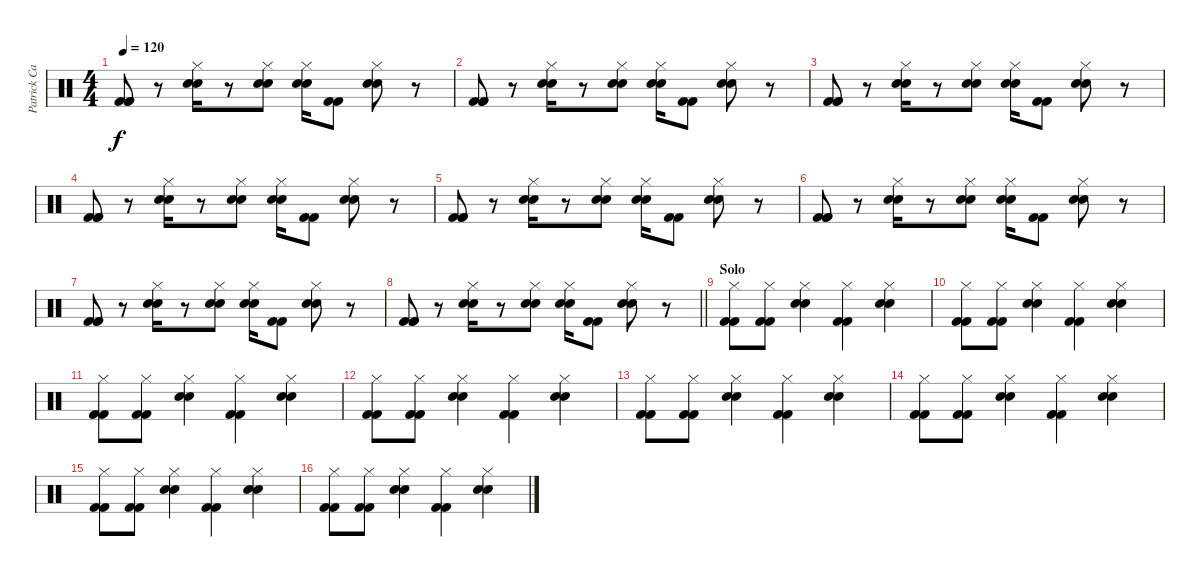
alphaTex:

\track ("Patrick Carney (Drums)" "Patrick Ca") {instrument percussion}
\staff {score}
\articulation defaults
\ts (4 4)
\tempo 120
\clef neutral
\ks c
("Kick (hit) 2" "Kick (hit) 2" "Kick (hit) 2").8{dy f} r.8 ("Electric Snare (hit)" "Snare (hit) 2" "Hi-Hat (closed)").16 r.8 ("Electric Snare (hit)" "Snare (hit) 2" "Hi-Hat (closed)").8 ("Electric Snare (hit)" "Snare (hit) 2" "Hi-Hat (closed)").16 ("Kick (hit) 2" "Kick (hit) 2").8 ("Electric Snare (hit)" "Snare (hit) 2" "Hi-Hat (closed)").8 r.8 |
("Kick (hit) 2" "Kick (hit) 2" "Kick (hit) 2").8 r.8 ("Electric Snare (hit)" "Snare (hit) 2" "Hi-Hat (closed)").16 r.8 ("Electric Snare (hit)" "Snare (hit) 2" "Hi-Hat (closed)").8 ("Electric Snare (hit)" "Snare (hit) 2" "Hi-Hat (closed)").16 ("Kick (hit) 2" "Kick (hit) 2").8 ("Electric Snare (hit)" "Snare (hit) 2" "Hi-Hat (closed)").8 r.8 |
("Kick (hit) 2" "Kick (hit) 2" "Kick (hit) 2").8 r.8 ("Electric Snare (hit)" "Snare (hit) 2" "Hi-Hat (closed)").16 r.8 ("Electric Snare (hit)" "Snare (hit) 2" "Hi-Hat (closed)").8 ("Electric Snare (hit)" "Snare (hit) 2" "Hi-Hat (closed)").16 ("Kick (hit) 2" "Kick (hit) 2").8 ("Electric Snare (hit)" "Snare (hit) 2" "Hi-Hat (closed)").8 r.8 |
("Kick (hit) 2" "Kick (hit) 2" "Kick (hit) 2").8 r.8 ("Electric Snare (hit)" "Snare (hit) 2" "Hi-Hat (closed)").16 r.8 ("Electric Snare (hit)" "Snare (hit) 2" "Hi-Hat (closed)").8 ("Electric Snare (hit)" "Snare (hit) 2" "Hi-Hat (closed)").16 ("Kick (hit) 2" "Kick (hit) 2").8 ("Electric Snare (hit)" "Snare (hit) 2" "Hi-Hat (closed)").8 r.8 |
("Kick (hit) 2" "Kick (hit) 2" "Kick (hit) 2").8 r.8 ("Electric Snare (hit)" "Snare (hit) 2" "Hi-Hat (closed)").16 r.8 ("Electric Snare (hit)" "Snare (hit) 2" "Hi-Hat (closed)").8 ("Electric Snare (hit)" "Snare (hit) 2" "Hi-Hat (closed)").16 ("Kick (hit) 2" "Kick (hit) 2").8 ("Electric Snare (hit)" "Snare (hit) 2" "Hi-Hat (closed)").8 r.8 |
("Kick (hit) 2" "Kick (hit) 2" "Kick (hit) 2").8 r.8 ("Electric Snare (hit)" "Snare (hit) 2" "Hi-Hat (closed)").16 r.8 ("Electric Snare (hit)" "Snare (hit) 2" "Hi-Hat (closed)").8 ("Electric Snare (hit)" "Snare (hit) 2" "Hi-Hat (closed)").16 ("Kick (hit) 2" "Kick (hit) 2").8 ("Electric Snare (hit)" "Snare (hit) 2" "Hi-Hat (closed)").8 r.8 |
("Kick (hit) 2" "Kick (hit) 2" "Kick (hit) 2").8 r.8 ("Electric Snare (hit)" "Snare (hit) 2" "Hi-Hat (closed)").16 r.8 ("Electric Snare (hit)" "Snare (hit) 2" "Hi-Hat (closed)").8 ("Electric Snare (hit)" "Snare (hit) 2" "Hi-Hat (closed)").16 ("Kick (hit) 2" "Kick (hit) 2").8 ("Electric Snare (hit)" "Snare (hit) 2" "Hi-Hat (closed)").8 r.8 |
\barLineRight lightlight
("Kick (hit) 2" "Kick (hit) 2" "Kick (hit) 2").8 r.8 ("Electric Snare (hit)" "Snare (hit) 2" "Hi-Hat (closed)").16 r.8 ("Electric Snare (hit)" "Snare (hit) 2" "Hi-Hat (closed)").8 ("Electric Snare (hit)" "Snare (hit) 2" "Hi-Hat (closed)").16 ("Kick (hit) 2" "Kick (hit) 2").8 ("Electric Snare (hit)" "Snare (hit) 2" "Hi-Hat (closed)").8 r.8 |
\section ("" "Solo")
("Kick (hit) 2" "Kick (hit) 2" "Hi-Hat (closed)").8 ("Kick (hit) 2" "Kick (hit) 2" "Hi-Hat (closed)").8 ("Electric Snare (hit)" "Snare (hit) 2" "Hi-Hat (closed)").4 ("Kick (hit) 2" "Kick (hit) 2" "Hi-Hat (closed)").4 ("Electric Snare (hit)" "Snare (hit) 2" "Hi-Hat (closed)").4 |
("Kick (hit) 2" "Kick (hit) 2" "Hi-Hat (closed)").8 ("Kick (hit) 2" "Kick (hit) 2" "Hi-Hat (closed)").8 ("Electric Snare (hit)" "Snare (hit) 2" "Hi-Hat (closed)").4 ("Kick (hit) 2" "Kick (hit) 2" "Hi-Hat (closed)").4 ("Electric Snare (hit)" "Snare (hit) 2" "Hi-Hat (closed)").4 |
("Kick (hit) 2" "Kick (hit) 2" "Hi-Hat (closed)").8 ("Kick (hit) 2" "Kick (hit) 2" "Hi-Hat (closed)").8 ("Electric Snare (hit)" "Snare (hit) 2" "Hi-Hat (closed)").4 ("Kick (hit) 2" "Kick (hit) 2" "Hi-Hat (closed)").4 ("Electric Snare (hit)" "Snare (hit) 2" "Hi-Hat (closed)").4 |
("Kick (hit) 2" "Kick (hit) 2" "Hi-Hat (closed)").8 ("Kick (hit) 2" "Kick (hit) 2" "Hi-Hat (closed)").8 ("Electric Snare (hit)" "Snare (hit) 2" "Hi-Hat (closed)").4 ("Kick (hit) 2" "Kick (hit) 2" "Hi-Hat (closed)").4 ("Electric Snare (hit)" "Snare (hit) 2" "Hi-Hat (closed)").4 |
("Kick (hit) 2" "Kick (hit) 2" "Hi-Hat (closed)").8 ("Kick (hit) 2" "Kick (hit) 2" "Hi-Hat (closed)").8 ("Electric Snare (hit)" "Snare (hit) 2" "Hi-Hat (closed)").4 ("Kick (hit) 2" "Kick (hit) 2" "Hi-Hat (closed)").4 ("Electric Snare (hit)" "Snare (hit) 2" "Hi-Hat (closed)").4 |
("Kick (hit) 2" "Kick (hit) 2" "Hi-Hat (closed)").8 ("Kick (hit) 2" "Kick (hit) 2" "Hi-Hat (closed)").8 ("Electric Snare (hit)" "Snare (hit) 2" "Hi-Hat (closed)").4 ("Kick (hit) 2" "Kick (hit) 2" "Hi-Hat (closed)").4 ("Electric Snare (hit)" "Snare (hit) 2" "Hi-Hat (closed)").4 |
("Kick (hit) 2" "Kick (hit) 2" "Hi-Hat (closed)").8 ("Kick (hit) 2" "Kick (hit) 2" "Hi-Hat (closed)").8 ("Electric Snare (hit)" "Snare (hit) 2" "Hi-Hat (closed)").4 ("Kick (hit) 2" "Kick (hit) 2" "Hi-Hat (closed)").4 ("Electric Snare (hit)" "Snare (hit) 2" "Hi-Hat (closed)").4 |
("Kick (hit) 2" "Kick (hit) 2" "Hi-Hat (closed)").8 ("Kick (hit) 2" "Kick (hit) 2" "Hi-Hat (closed)").8 ("Electric Snare (hit)" "Snare (hit) 2" "Hi-Hat (closed)").4 ("Kick (hit) 2" "Kick (hit) 2" "Hi-Hat (closed)").4 ("Electric Snare (hit)" "Snare (hit) 2" "Hi-Hat (closed)").4
